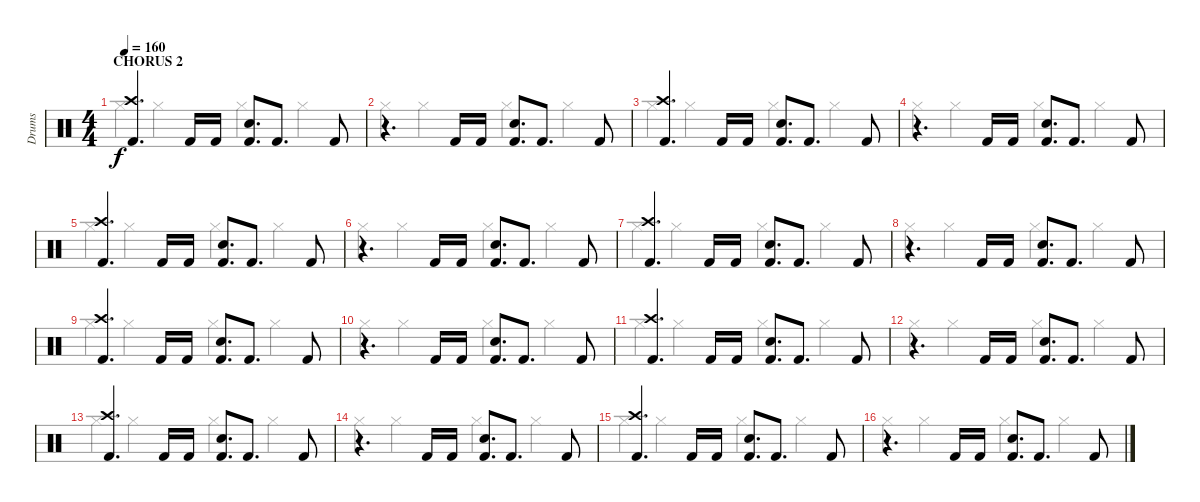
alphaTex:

\track ("Drums" "Drums") {instrument percussion}
\staff {score}
\articulation defaults
\voice
\ts (4 4)
\section ("" "CHORUS 2")
\tempo 160
\clef neutral
\ks c
("Crash high (hit)" "Kick (hit) 2").4{d dy f} "Kick (hit) 2".16 "Kick (hit) 2".16 ("Snare (hit) 2" "Kick (hit) 2").8{d} "Kick (hit) 2".8{d} "Kick (hit) 2".8 |
r.4{d} "Kick (hit) 2".16 "Kick (hit) 2".16 ("Snare (hit) 2" "Kick (hit) 2").8{d} "Kick (hit) 2".8{d} "Kick (hit) 2".8 |
("Crash high (hit)" "Kick (hit) 2").4{d} "Kick (hit) 2".16 "Kick (hit) 2".16 ("Snare (hit) 2" "Kick (hit) 2").8{d} "Kick (hit) 2".8{d} "Kick (hit) 2".8 |
r.4{d} "Kick (hit) 2".16 "Kick (hit) 2".16 ("Snare (hit) 2" "Kick (hit) 2").8{d} "Kick (hit) 2".8{d} "Kick (hit) 2".8 |
("Crash high (hit)" "Kick (hit) 2").4{d} "Kick (hit) 2".16 "Kick (hit) 2".16 ("Snare (hit) 2" "Kick (hit) 2").8{d} "Kick (hit) 2".8{d} "Kick (hit) 2".8 |
r.4{d} "Kick (hit) 2".16 "Kick (hit) 2".16 ("Snare (hit) 2" "Kick (hit) 2").8{d} "Kick (hit) 2".8{d} "Kick (hit) 2".8 |
("Crash high (hit)" "Kick (hit) 2").4{d} "Kick (hit) 2".16 "Kick (hit) 2".16 ("Snare (hit) 2" "Kick (hit) 2").8{d} "Kick (hit) 2".8{d} "Kick (hit) 2".8 |
r.4{d} "Kick (hit) 2".16 "Kick (hit) 2".16 ("Snare (hit) 2" "Kick (hit) 2").8{d} "Kick (hit) 2".8{d} "Kick (hit) 2".8 |
("Crash high (hit)" "Kick (hit) 2").4{d} "Kick (hit) 2".16 "Kick (hit) 2".16 ("Snare (hit) 2" "Kick (hit) 2").8{d} "Kick (hit) 2".8{d} "Kick (hit) 2".8 |
r.4{d} "Kick (hit) 2".16 "Kick (hit) 2".16 ("Snare (hit) 2" "Kick (hit) 2").8{d} "Kick (hit) 2".8{d} "Kick (hit) 2".8 |
("Crash high (hit)" "Kick (hit) 2").4{d} "Kick (hit) 2".16 "Kick (hit) 2".16 ("Snare (hit) 2" "Kick (hit) 2").8{d} "Kick (hit) 2".8{d} "Kick (hit) 2".8 |
r.4{d} "Kick (hit) 2".16 "Kick (hit) 2".16 ("Snare (hit) 2" "Kick (hit) 2").8{d} "Kick (hit) 2".8{d} "Kick (hit) 2".8 |
("Crash high (hit)" "Kick (hit) 2").4{d} "Kick (hit) 2".16 "Kick (hit) 2".16 ("Snare (hit) 2" "Kick (hit) 2").8{d} "Kick (hit) 2".8{d} "Kick (hit) 2".8 |
r.4{d} "Kick (hit) 2".16 "Kick (hit) 2".16 ("Snare (hit) 2" "Kick (hit) 2").8{d} "Kick (hit) 2".8{d} "Kick (hit) 2".8 |
("Crash high (hit)" "Kick (hit) 2").4{d} "Kick (hit) 2".16 "Kick (hit) 2".16 ("Snare (hit) 2" "Kick (hit) 2").8{d} "Kick (hit) 2".8{d} "Kick (hit) 2".8 |
r.4{d} "Kick (hit) 2".16 "Kick (hit) 2".16 ("Snare (hit) 2" "Kick (hit) 2").8{d} "Kick (hit) 2".8{d} "Kick (hit) 2".8
\voice
\clef neutral
\ottava regular
\simile none
\ks c "Hi-Hat (closed)".4{dy f} "Hi-Hat (closed)".4 "Hi-Hat (closed)".4 "Hi-Hat (closed)".4
|
"Hi-Hat (closed)".4 "Hi-Hat (closed)".4 "Hi-Hat (closed)".4 "Hi-Hat (closed)".4 |
"Hi-Hat (closed)".4 "Hi-Hat (closed)".4 "Hi-Hat (closed)".4 "Hi-Hat (closed)".4 |
"Hi-Hat (closed)".4 "Hi-Hat (closed)".4 "Hi-Hat (closed)".4 "Hi-Hat (closed)".4 |
"Hi-Hat (closed)".4 "Hi-Hat (closed)".4 "Hi-Hat (closed)".4 "Hi-Hat (closed)".4 |
"Hi-Hat (closed)".4 "Hi-Hat (closed)".4 "Hi-Hat (closed)".4 "Hi-Hat (closed)".4 |
"Hi-Hat (closed)".4 "Hi-Hat (closed)".4 "Hi-Hat (closed)".4 "Hi-Hat (closed)".4 |
"Hi-Hat (closed)".4 "Hi-Hat (closed)".4 "Hi-Hat (closed)".4 "Hi-Hat (closed)".4 |
"Hi-Hat (closed)".4 "Hi-Hat (closed)".4 "Hi-Hat (closed)".4 "Hi-Hat (closed)".4 |
"Hi-Hat (closed)".4 "Hi-Hat (closed)".4 "Hi-Hat (closed)".4 "Hi-Hat (closed)".4 |
"Hi-Hat (closed)".4 "Hi-Hat (closed)".4 "Hi-Hat (closed)".4 "Hi-Hat (closed)".4 |
"Hi-Hat (closed)".4 "Hi-Hat (closed)".4 "Hi-Hat (closed)".4 "Hi-Hat (closed)".4 |
"Hi-Hat (closed)".4 "Hi-Hat (closed)".4 "Hi-Hat (closed)".4 "Hi-Hat (closed)".4 |
"Hi-Hat (closed)".4 "Hi-Hat (closed)".4 "Hi-Hat (closed)".4 "Hi-Hat (closed)".4 |
"Hi-Hat (closed)".4 "Hi-Hat (closed)".4 "Hi-Hat (closed)".4 "Hi-Hat (closed)".4 |
"Hi-Hat (closed)".4 "Hi-Hat (closed)".4 "Hi-Hat (closed)".4 "Hi-Hat (closed)".4
